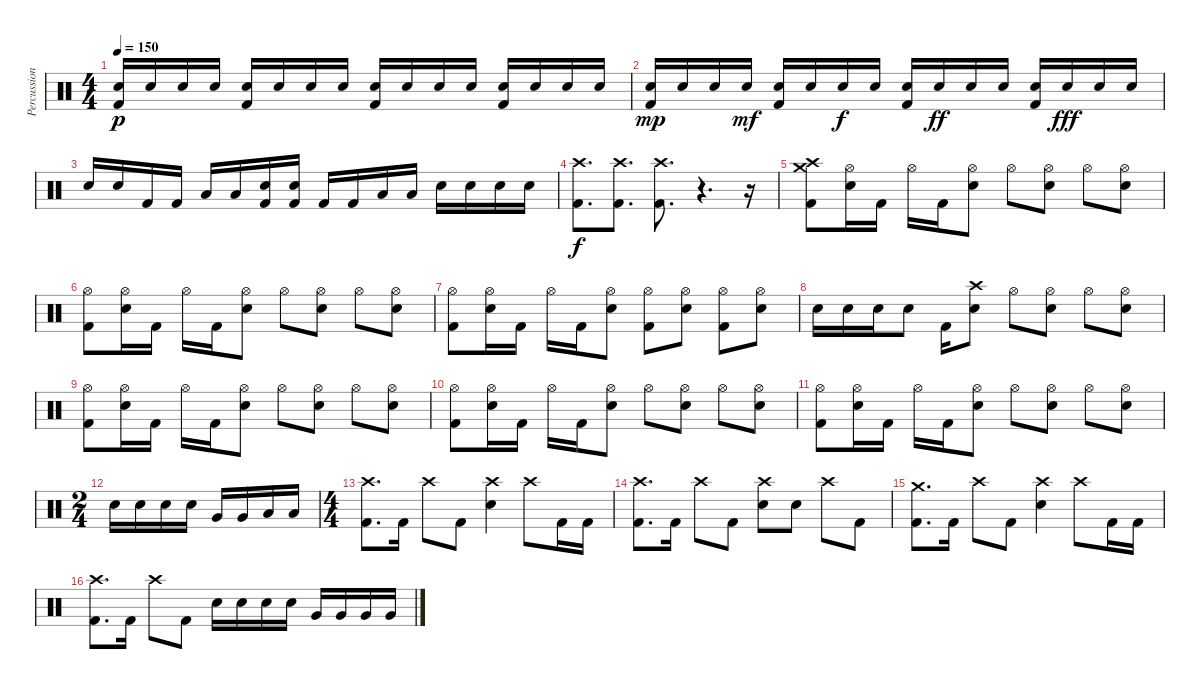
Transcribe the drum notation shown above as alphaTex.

\track ("Percussion" "Percussion") {instrument percussion}
\staff {score}
\articulation defaults
\ts (4 4)
\tempo 150
\clef neutral
\ks c
("Electric Snare (hit)" "Kick (hit) 2").16{dy p} "Electric Snare (hit)".16 "Electric Snare (hit)".16 "Electric Snare (hit)".16 ("Electric Snare (hit)" "Kick (hit) 2").16 "Electric Snare (hit)".16 "Electric Snare (hit)".16 "Electric Snare (hit)".16 ("Electric Snare (hit)" "Kick (hit) 2").16 "Electric Snare (hit)".16 "Electric Snare (hit)".16 "Electric Snare (hit)".16 ("Electric Snare (hit)" "Kick (hit) 2").16 "Electric Snare (hit)".16 "Electric Snare (hit)".16 "Electric Snare (hit)".16 |
("Electric Snare (hit)" "Kick (hit) 2").16{dy mp} "Electric Snare (hit)".16 "Electric Snare (hit)".16 "Electric Snare (hit)".16{dy mf} ("Electric Snare (hit)" "Kick (hit) 2").16 "Electric Snare (hit)".16 "Electric Snare (hit)".16{dy f} "Electric Snare (hit)".16 ("Electric Snare (hit)" "Kick (hit) 2").16 "Electric Snare (hit)".16{dy ff} "Electric Snare (hit)".16 "Electric Snare (hit)".16 ("Electric Snare (hit)" "Kick (hit) 2").16 "Electric Snare (hit)".16{dy fff} "Electric Snare (hit)".16 "Electric Snare (hit)".16 |
"Electric Snare (hit)".16 "Electric Snare (hit)".16 "Kick (hit) 2".16 "Kick (hit) 2".16 "Low Floor Tom (hit)".16 "Low Floor Tom (hit)".16 ("Electric Snare (hit)" "Kick (hit) 2").16 ("Electric Snare (hit)" "Kick (hit) 2").16 "Kick (hit) 2".16 "Kick (hit) 2".16 "Low Floor Tom (hit)".16 "Low Floor Tom (hit)".16 "Electric Snare (hit)".16 "Electric Snare (hit)".16 "Electric Snare (hit)".16 "Electric Snare (hit)".16 |
("Crash high (hit)" "Kick (hit) 2").8{d dy f} ("Crash high (hit)" "Kick (hit) 2").8{d} ("Crash high (hit)" "Kick (hit) 2").8{d} r.4{d} r.16 |
("Crash high (hit)" "Crash medium (hit)" "Kick (hit) 2").8 ("Hi-Hat (open)" "Electric Snare (hit)").16 "Kick (hit) 2".16 "Hi-Hat (open)".16 "Kick (hit) 2".16 ("Hi-Hat (open)" "Electric Snare (hit)").8 "Hi-Hat (open)".8 ("Hi-Hat (open)" "Electric Snare (hit)").8 "Hi-Hat (open)".8 ("Hi-Hat (open)" "Electric Snare (hit)").8 |
("Hi-Hat (open)" "Kick (hit) 2").8 ("Hi-Hat (open)" "Electric Snare (hit)").16 "Kick (hit) 2".16 "Hi-Hat (open)".16 "Kick (hit) 2".16 ("Hi-Hat (open)" "Electric Snare (hit)").8 "Hi-Hat (open)".8 ("Hi-Hat (open)" "Electric Snare (hit)").8 "Hi-Hat (open)".8 ("Hi-Hat (open)" "Electric Snare (hit)").8 |
("Hi-Hat (open)" "Kick (hit) 2").8 ("Hi-Hat (open)" "Electric Snare (hit)").16 "Kick (hit) 2".16 "Hi-Hat (open)".16 "Kick (hit) 2".16 ("Hi-Hat (open)" "Electric Snare (hit)").8 ("Hi-Hat (open)" "Kick (hit) 2").8 ("Hi-Hat (open)" "Electric Snare (hit)").8 ("Hi-Hat (open)" "Kick (hit) 2").8 ("Hi-Hat (open)" "Electric Snare (hit)").8 |
"Electric Snare (hit)".16 "Electric Snare (hit)".16 "Electric Snare (hit)".16 "Electric Snare (hit)".8 "Kick (hit) 2".16 ("Crash high (hit)" "Electric Snare (hit)").8 "Hi-Hat (open)".8 ("Hi-Hat (open)" "Electric Snare (hit)").8 "Hi-Hat (open)".8 ("Hi-Hat (open)" "Electric Snare (hit)").8 |
("Hi-Hat (open)" "Kick (hit) 2").8 ("Hi-Hat (open)" "Electric Snare (hit)").16 "Kick (hit) 2".16 "Hi-Hat (open)".16 "Kick (hit) 2".16 ("Hi-Hat (open)" "Electric Snare (hit)").8 "Hi-Hat (open)".8 ("Hi-Hat (open)" "Electric Snare (hit)").8 "Hi-Hat (open)".8 ("Hi-Hat (open)" "Electric Snare (hit)").8 |
("Hi-Hat (open)" "Kick (hit) 2").8 ("Hi-Hat (open)" "Electric Snare (hit)").16 "Kick (hit) 2".16 "Hi-Hat (open)".16 "Kick (hit) 2".16 ("Hi-Hat (open)" "Electric Snare (hit)").8 "Hi-Hat (open)".8 ("Hi-Hat (open)" "Electric Snare (hit)").8 "Hi-Hat (open)".8 ("Hi-Hat (open)" "Electric Snare (hit)").8 |
("Hi-Hat (open)" "Kick (hit) 2").8 ("Hi-Hat (open)" "Electric Snare (hit)").16 "Kick (hit) 2".16 "Hi-Hat (open)".16 "Kick (hit) 2".16 ("Hi-Hat (open)" "Electric Snare (hit)").8 "Hi-Hat (open)".8 ("Hi-Hat (open)" "Electric Snare (hit)").8 "Hi-Hat (open)".8 ("Hi-Hat (open)" "Electric Snare (hit)").8 |
\ts (2 4)
"Electric Snare (hit)".16 "Electric Snare (hit)".16 "Electric Snare (hit)".16 "Electric Snare (hit)".16 "Very Low Tom (hit)".16 "Very Low Tom (hit)".16 "Low Floor Tom (hit)".16 "Low Floor Tom (hit)".16 |
\ts (4 4)
("Crash high (hit)" "Kick (hit) 2").8{d} "Kick (hit) 2".16 "Crash high (hit)".8 "Kick (hit) 2".8 ("Crash high (hit)" "Electric Snare (hit)").4 "Crash high (hit)".8 "Kick (hit) 2".16 "Kick (hit) 2".16 |
("Crash high (hit)" "Kick (hit) 2").8{d} "Kick (hit) 2".16 "Crash high (hit)".8 "Kick (hit) 2".8 ("Crash high (hit)" "Electric Snare (hit)").8 "Electric Snare (hit)".8 "Crash high (hit)".8 "Kick (hit) 2".8 |
("Crash medium (hit)" "Kick (hit) 2").8{d} "Kick (hit) 2".16 "Crash high (hit)".8 "Kick (hit) 2".8 ("Crash high (hit)" "Electric Snare (hit)").4 "Crash high (hit)".8 "Kick (hit) 2".16 "Kick (hit) 2".16 |
("Crash high (hit)" "Kick (hit) 2").8{d} "Kick (hit) 2".16 "Crash high (hit)".8 "Kick (hit) 2".8 "Electric Snare (hit)".16 "Electric Snare (hit)".16 "Electric Snare (hit)".16 "Electric Snare (hit)".16 "Very Low Tom (hit)".16 "Very Low Tom (hit)".16 "Very Low Tom (hit)".16 "Very Low Tom (hit)".16
